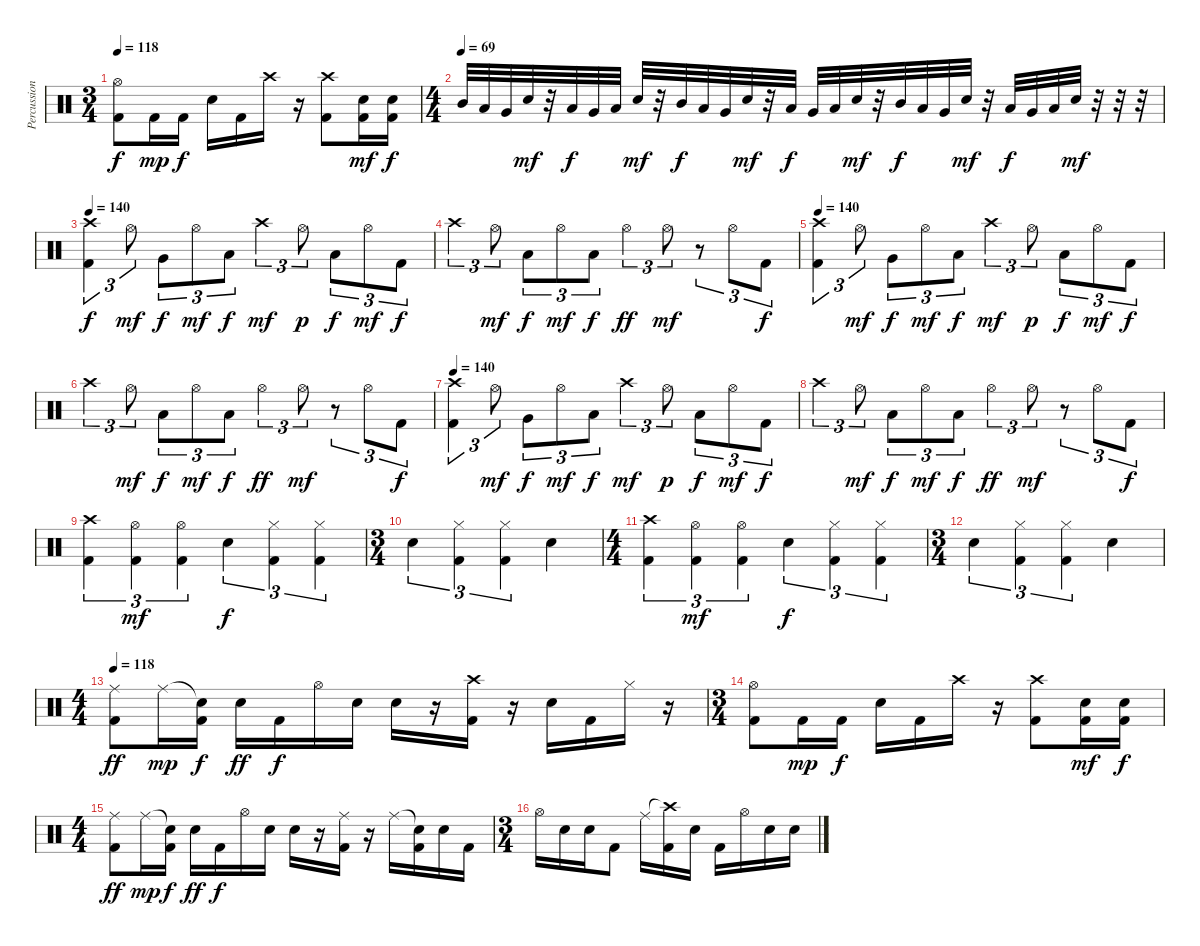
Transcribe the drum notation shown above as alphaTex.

\track ("Percussion" "Percussion") {instrument percussion}
\staff {score}
\articulation defaults
\ts (3 4)
\tempo 118
\clef neutral
\ks c
("Hi-Hat (open)" "Kick (hit) 2").8{dy f} "Kick (hit) 2".16{dy mp} "Kick (hit) 2".16{dy f} "Snare (hit) 2".16 "Kick (hit) 2".16 "Crash high (hit)".16 r.16 ("Crash high (hit)" "Kick (hit) 2").8 ("Snare (hit) 2" "Kick (hit) 2").16{dy mf} ("Snare (hit) 2" "Kick (hit) 2").16{dy f} |
\ts (4 4)
\tempo (69)
"Mid Tom (hit)".32 "Low Tom (hit)".32 "Very Low Tom (hit)".32 "Snare (hit) 2".32{dy mf} r.32 "Low Tom (hit)".32{dy f} "Very Low Tom (hit)".32 "Low Floor Tom (hit)".32 "Snare (hit) 2".32{dy mf} r.32 "Mid Tom (hit)".32{dy f} "Low Tom (hit)".32 "Very Low Tom (hit)".32 "Snare (hit) 2".32{dy mf} r.32 "Low Tom (hit)".32{dy f} "Very Low Tom (hit)".32 "Low Floor Tom (hit)".32 "Snare (hit) 2".32{dy mf} r.32 "Mid Tom (hit)".32{dy f} "Low Tom (hit)".32 "Very Low Tom (hit)".32 "Snare (hit) 2".32{dy mf} r.32 "Low Tom (hit)".32{dy f} "Very Low Tom (hit)".32 "Low Floor Tom (hit)".32 "Snare (hit) 2".32{dy mf} r.32 r.32 r.32 |
\tempo 140
("Crash high (hit)" "Kick (hit) 2").4{tu (3 2) dy f} "Hi-Hat (open)".8{tu (3 2) dy mf} "Very Low Tom (hit)".8{tu (3 2) dy f} "Hi-Hat (open)".8{tu (3 2) dy mf} "Low Floor Tom (hit)".8{tu (3 2) dy f} "Crash high (hit)".4{tu (3 2) dy mf} "Hi-Hat (open)".8{tu (3 2) dy p} "Low Floor Tom (hit)".8{tu (3 2) dy f} "Hi-Hat (open)".8{tu (3 2) dy mf} "Kick (hit) 2".8{tu (3 2) dy f} |
"Crash high (hit)".4{tu (3 2)} "Hi-Hat (open)".8{tu (3 2) dy mf} "Low Floor Tom (hit)".8{tu (3 2) dy f} "Hi-Hat (open)".8{tu (3 2) dy mf} "Low Floor Tom (hit)".8{tu (3 2) dy f} "Hi-Hat (open)".4{tu (3 2) dy ff} "Hi-Hat (open)".8{tu (3 2) dy mf} r.8{tu (3 2)} "Hi-Hat (open)".8{tu (3 2)} "Kick (hit) 2".8{tu (3 2) dy f} |
\tempo 140
("Crash high (hit)" "Kick (hit) 2").4{tu (3 2)} "Hi-Hat (open)".8{tu (3 2) dy mf} "Very Low Tom (hit)".8{tu (3 2) dy f} "Hi-Hat (open)".8{tu (3 2) dy mf} "Low Floor Tom (hit)".8{tu (3 2) dy f} "Crash high (hit)".4{tu (3 2) dy mf} "Hi-Hat (open)".8{tu (3 2) dy p} "Low Floor Tom (hit)".8{tu (3 2) dy f} "Hi-Hat (open)".8{tu (3 2) dy mf} "Kick (hit) 2".8{tu (3 2) dy f} |
"Crash high (hit)".4{tu (3 2)} "Hi-Hat (open)".8{tu (3 2) dy mf} "Low Floor Tom (hit)".8{tu (3 2) dy f} "Hi-Hat (open)".8{tu (3 2) dy mf} "Low Floor Tom (hit)".8{tu (3 2) dy f} "Hi-Hat (open)".4{tu (3 2) dy ff} "Hi-Hat (open)".8{tu (3 2) dy mf} r.8{tu (3 2)} "Hi-Hat (open)".8{tu (3 2)} "Kick (hit) 2".8{tu (3 2) dy f} |
\tempo 140
("Crash high (hit)" "Kick (hit) 2").4{tu (3 2)} "Hi-Hat (open)".8{tu (3 2) dy mf} "Very Low Tom (hit)".8{tu (3 2) dy f} "Hi-Hat (open)".8{tu (3 2) dy mf} "Low Floor Tom (hit)".8{tu (3 2) dy f} "Crash high (hit)".4{tu (3 2) dy mf} "Hi-Hat (open)".8{tu (3 2) dy p} "Low Floor Tom (hit)".8{tu (3 2) dy f} "Hi-Hat (open)".8{tu (3 2) dy mf} "Kick (hit) 2".8{tu (3 2) dy f} |
"Crash high (hit)".4{tu (3 2)} "Hi-Hat (open)".8{tu (3 2) dy mf} "Low Floor Tom (hit)".8{tu (3 2) dy f} "Hi-Hat (open)".8{tu (3 2) dy mf} "Low Floor Tom (hit)".8{tu (3 2) dy f} "Hi-Hat (open)".4{tu (3 2) dy ff} "Hi-Hat (open)".8{tu (3 2) dy mf} r.8{tu (3 2)} "Hi-Hat (open)".8{tu (3 2)} "Kick (hit) 2".8{tu (3 2) dy f} |
("Crash high (hit)" "Kick (hit) 2").4{tu (3 2)} ("Hi-Hat (open)" "Kick (hit) 2").4{tu (3 2) dy mf} ("Hi-Hat (open)" "Kick (hit) 2").4{tu (3 2)} "Snare (hit) 2".4{tu (3 2) dy f} ("Hi-Hat (closed)" "Kick (hit) 2").4{tu (3 2)} ("Hi-Hat (closed)" "Kick (hit) 2").4{tu (3 2)} |
\ts (3 4)
"Snare (hit) 2".4{tu (3 2)} ("Hi-Hat (closed)" "Kick (hit) 2").4{tu (3 2)} ("Hi-Hat (closed)" "Kick (hit) 2").4{tu (3 2)} "Snare (hit) 2".4 |
\ts (4 4)
("Crash high (hit)" "Kick (hit) 2").4{tu (3 2)} ("Hi-Hat (open)" "Kick (hit) 2").4{tu (3 2) dy mf} ("Hi-Hat (open)" "Kick (hit) 2").4{tu (3 2)} "Snare (hit) 2".4{tu (3 2) dy f} ("Hi-Hat (closed)" "Kick (hit) 2").4{tu (3 2)} ("Hi-Hat (closed)" "Kick (hit) 2").4{tu (3 2)} |
\ts (3 4)
"Snare (hit) 2".4{tu (3 2)} ("Hi-Hat (closed)" "Kick (hit) 2").4{tu (3 2)} ("Hi-Hat (closed)" "Kick (hit) 2").4{tu (3 2)} "Snare (hit) 2".4 |
\ts (4 4)
\tempo 118
("Ride (middle)" "Kick (hit) 2").8{dy ff} "Ride (middle)".16{dy mp} ("Snare (hit)"{t} "Kick (hit) 2").16{dy f} "Snare (hit) 2".16{dy ff} "Kick (hit) 2".16{dy f} "Hi-Hat (open)".16 "Snare (hit) 2".16 "Snare (hit) 2".16 r.16 ("Crash high (hit)" "Kick (hit) 2").16 r.16 "Snare (hit) 2".16 "Kick (hit) 2".16 "Hi-Hat (closed)".16 r.16 |
\ts (3 4)
("Hi-Hat (open)" "Kick (hit) 2").8 "Kick (hit) 2".16{dy mp} "Kick (hit) 2".16{dy f} "Snare (hit) 2".16 "Kick (hit) 2".16 "Crash high (hit)".16 r.16 ("Crash high (hit)" "Kick (hit) 2").8 ("Snare (hit) 2" "Kick (hit) 2").16{dy mf} ("Snare (hit) 2" "Kick (hit) 2").16{dy f} |
\ts (4 4)
("Ride (middle)" "Kick (hit) 2").8{dy ff} "Ride (middle)".16{dy mp} ("Snare (hit)"{t} "Kick (hit) 2").16{dy f} "Snare (hit) 2".16{dy ff} "Kick (hit) 2".16{dy f} "Hi-Hat (open)".16 "Snare (hit) 2".16 "Snare (hit) 2".16 r.16 ("Ride (middle)" "Kick (hit) 2").16 r.16 "Ride (middle)".16 ("Snare (hit)"{t} "Kick (hit) 2").16 "Snare (hit) 2".16 "Kick (hit) 2".16 |
\ts (3 4)
"Hi-Hat (open)".16 "Snare (hit) 2".16 "Snare (hit) 2".16 "Kick (hit) 2".8 "Ride (middle)".16 ("Crash high (hit)"{t} "Kick (hit) 2").16 "Snare (hit) 2".16 "Kick (hit) 2".16 "Hi-Hat (open)".16 "Snare (hit) 2".16 "Snare (hit) 2".16
